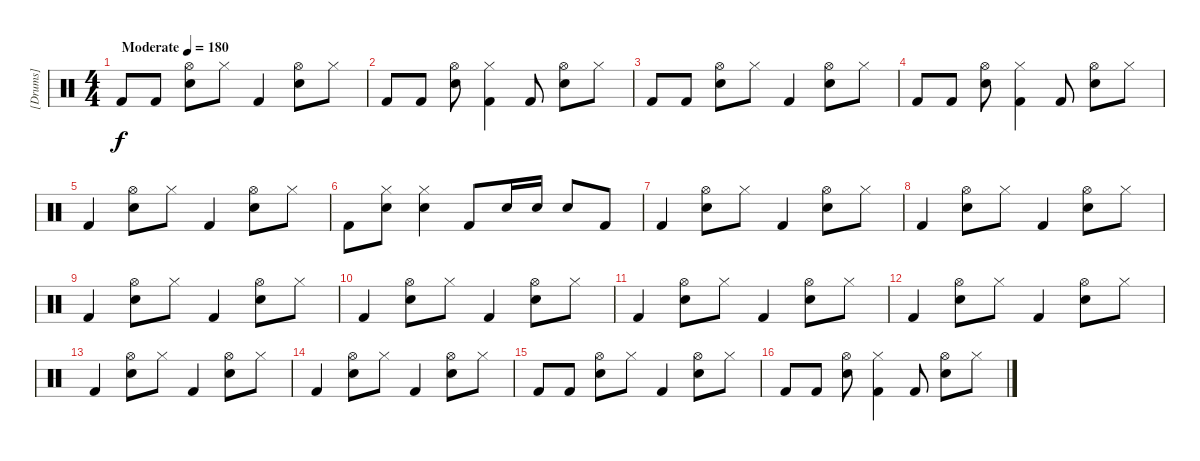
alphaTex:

\track ("[Drums]" "[Drums]") {instrument percussion}
\staff {score}
\articulation defaults
\ts (4 4)
\tempo (180 "Moderate")
\clef neutral
\ks c "Kick (hit) 2".8{dy f} "Kick (hit) 2".8
("Hi-Hat (open)" "Electric Snare (hit)").8 "Hi-Hat (closed)".8 "Kick (hit) 2".4 ("Hi-Hat (open)" "Electric Snare (hit)").8 "Hi-Hat (closed)".8 |
"Kick (hit) 2".8 "Kick (hit) 2".8 ("Hi-Hat (open)" "Electric Snare (hit)").8 ("Hi-Hat (closed)" "Kick (hit) 2").4 "Kick (hit) 2".8 ("Hi-Hat (open)" "Electric Snare (hit)").8 "Hi-Hat (closed)".8 |
"Kick (hit) 2".8 "Kick (hit) 2".8 ("Hi-Hat (open)" "Electric Snare (hit)").8 "Hi-Hat (closed)".8 "Kick (hit) 2".4 ("Hi-Hat (open)" "Electric Snare (hit)").8 "Hi-Hat (closed)".8 |
"Kick (hit) 2".8 "Kick (hit) 2".8 ("Hi-Hat (open)" "Electric Snare (hit)").8 ("Hi-Hat (closed)" "Kick (hit) 2").4 "Kick (hit) 2".8 ("Hi-Hat (open)" "Electric Snare (hit)").8 "Hi-Hat (closed)".8 |
"Kick (hit) 2".4 ("Hi-Hat (open)" "Electric Snare (hit)").8 "Hi-Hat (closed)".8 "Kick (hit) 2".4 ("Hi-Hat (open)" "Electric Snare (hit)").8 "Hi-Hat (closed)".8 |
"Kick (hit) 2".8 ("Hi-Hat (closed)" "Electric Snare (hit)").8 ("Hi-Hat (closed)" "Electric Snare (hit)").4 "Kick (hit) 2".8 "Electric Snare (hit)".16 "Electric Snare (hit)".16 "Electric Snare (hit)".8 "Kick (hit) 2".8 |
"Kick (hit) 2".4 ("Hi-Hat (open)" "Electric Snare (hit)").8 "Hi-Hat (closed)".8 "Kick (hit) 2".4 ("Hi-Hat (open)" "Electric Snare (hit)").8 "Hi-Hat (closed)".8 |
"Kick (hit) 2".4 ("Hi-Hat (open)" "Electric Snare (hit)").8 "Hi-Hat (closed)".8 "Kick (hit) 2".4 ("Hi-Hat (open)" "Electric Snare (hit)").8 "Hi-Hat (closed)".8 |
"Kick (hit) 2".4 ("Hi-Hat (open)" "Electric Snare (hit)").8 "Hi-Hat (closed)".8 "Kick (hit) 2".4 ("Hi-Hat (open)" "Electric Snare (hit)").8 "Hi-Hat (closed)".8 |
"Kick (hit) 2".4 ("Hi-Hat (open)" "Electric Snare (hit)").8 "Hi-Hat (closed)".8 "Kick (hit) 2".4 ("Hi-Hat (open)" "Electric Snare (hit)").8 "Hi-Hat (closed)".8 |
"Kick (hit) 2".4 ("Hi-Hat (open)" "Electric Snare (hit)").8 "Hi-Hat (closed)".8 "Kick (hit) 2".4 ("Hi-Hat (open)" "Electric Snare (hit)").8 "Hi-Hat (closed)".8 |
"Kick (hit) 2".4 ("Hi-Hat (open)" "Electric Snare (hit)").8 "Hi-Hat (closed)".8 "Kick (hit) 2".4 ("Hi-Hat (open)" "Electric Snare (hit)").8 "Hi-Hat (closed)".8 |
"Kick (hit) 2".4 ("Hi-Hat (open)" "Electric Snare (hit)").8 "Hi-Hat (closed)".8 "Kick (hit) 2".4 ("Hi-Hat (open)" "Electric Snare (hit)").8 "Hi-Hat (closed)".8 |
"Kick (hit) 2".4 ("Hi-Hat (open)" "Electric Snare (hit)").8 "Hi-Hat (closed)".8 "Kick (hit) 2".4 ("Hi-Hat (open)" "Electric Snare (hit)").8 "Hi-Hat (closed)".8 |
"Kick (hit) 2".8 "Kick (hit) 2".8 ("Hi-Hat (open)" "Electric Snare (hit)").8 "Hi-Hat (closed)".8 "Kick (hit) 2".4 ("Hi-Hat (open)" "Electric Snare (hit)").8 "Hi-Hat (closed)".8 |
"Kick (hit) 2".8 "Kick (hit) 2".8 ("Hi-Hat (open)" "Electric Snare (hit)").8 ("Hi-Hat (closed)" "Kick (hit) 2").4 "Kick (hit) 2".8 ("Hi-Hat (open)" "Electric Snare (hit)").8 "Hi-Hat (closed)".8
